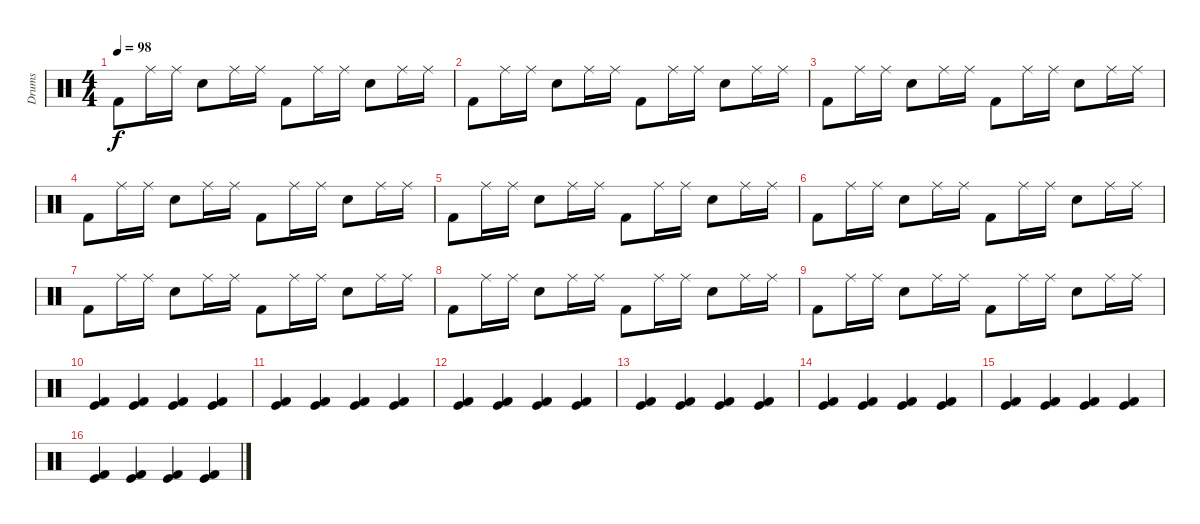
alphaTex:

\track ("Drums" "Drums") {instrument percussion}
\staff {score}
\articulation defaults
\ts (4 4)
\tempo 98
\clef neutral
\ks c "Kick (hit) 2".8{dy f} "Ride (middle)".16 "Ride (middle)".16 "Snare (hit) 2".8 "Ride (middle)".16 "Ride (middle)".16 "Kick (hit) 2".8 "Ride (middle)".16 "Ride (middle)".16 "Snare (hit) 2".8 "Ride (middle)".16 "Ride (middle)".16
|
"Kick (hit) 2".8 "Ride (middle)".16 "Ride (middle)".16 "Snare (hit) 2".8 "Ride (middle)".16 "Ride (middle)".16 "Kick (hit) 2".8 "Ride (middle)".16 "Ride (middle)".16 "Snare (hit) 2".8 "Ride (middle)".16 "Ride (middle)".16 |
"Kick (hit) 2".8 "Ride (middle)".16 "Ride (middle)".16 "Snare (hit) 2".8 "Ride (middle)".16 "Ride (middle)".16 "Kick (hit) 2".8 "Ride (middle)".16 "Ride (middle)".16 "Snare (hit) 2".8 "Ride (middle)".16 "Ride (middle)".16 |
"Kick (hit) 2".8 "Ride (middle)".16 "Ride (middle)".16 "Snare (hit) 2".8 "Ride (middle)".16 "Ride (middle)".16 "Kick (hit) 2".8 "Ride (middle)".16 "Ride (middle)".16 "Snare (hit) 2".8 "Ride (middle)".16 "Ride (middle)".16 |
"Kick (hit) 2".8 "Ride (middle)".16 "Ride (middle)".16 "Snare (hit) 2".8 "Ride (middle)".16 "Ride (middle)".16 "Kick (hit) 2".8 "Ride (middle)".16 "Ride (middle)".16 "Snare (hit) 2".8 "Ride (middle)".16 "Ride (middle)".16 |
"Kick (hit) 2".8 "Ride (middle)".16 "Ride (middle)".16 "Snare (hit) 2".8 "Ride (middle)".16 "Ride (middle)".16 "Kick (hit) 2".8 "Ride (middle)".16 "Ride (middle)".16 "Snare (hit) 2".8 "Ride (middle)".16 "Ride (middle)".16 |
"Kick (hit) 2".8 "Ride (middle)".16 "Ride (middle)".16 "Snare (hit) 2".8 "Ride (middle)".16 "Ride (middle)".16 "Kick (hit) 2".8 "Ride (middle)".16 "Ride (middle)".16 "Snare (hit) 2".8 "Ride (middle)".16 "Ride (middle)".16 |
"Kick (hit) 2".8 "Ride (middle)".16 "Ride (middle)".16 "Snare (hit) 2".8 "Ride (middle)".16 "Ride (middle)".16 "Kick (hit) 2".8 "Ride (middle)".16 "Ride (middle)".16 "Snare (hit) 2".8 "Ride (middle)".16 "Ride (middle)".16 |
"Kick (hit) 2".8 "Ride (middle)".16 "Ride (middle)".16 "Snare (hit) 2".8 "Ride (middle)".16 "Ride (middle)".16 "Kick (hit) 2".8 "Ride (middle)".16 "Ride (middle)".16 "Snare (hit) 2".8 "Ride (middle)".16 "Ride (middle)".16 |
("Kick (hit)" "Kick (hit) 2").4 ("Kick (hit)" "Kick (hit) 2").4 ("Kick (hit)" "Kick (hit) 2").4 ("Kick (hit)" "Kick (hit) 2").4 |
("Kick (hit)" "Kick (hit) 2").4 ("Kick (hit)" "Kick (hit) 2").4 ("Kick (hit)" "Kick (hit) 2").4 ("Kick (hit)" "Kick (hit) 2").4 |
("Kick (hit)" "Kick (hit) 2").4 ("Kick (hit)" "Kick (hit) 2").4 ("Kick (hit)" "Kick (hit) 2").4 ("Kick (hit)" "Kick (hit) 2").4 |
("Kick (hit)" "Kick (hit) 2").4 ("Kick (hit)" "Kick (hit) 2").4 ("Kick (hit)" "Kick (hit) 2").4 ("Kick (hit)" "Kick (hit) 2").4 |
("Kick (hit)" "Kick (hit) 2").4 ("Kick (hit)" "Kick (hit) 2").4 ("Kick (hit)" "Kick (hit) 2").4 ("Kick (hit)" "Kick (hit) 2").4 |
("Kick (hit)" "Kick (hit) 2").4 ("Kick (hit)" "Kick (hit) 2").4 ("Kick (hit)" "Kick (hit) 2").4 ("Kick (hit)" "Kick (hit) 2").4 |
("Kick (hit)" "Kick (hit) 2").4 ("Kick (hit)" "Kick (hit) 2").4 ("Kick (hit)" "Kick (hit) 2").4 ("Kick (hit)" "Kick (hit) 2").4
